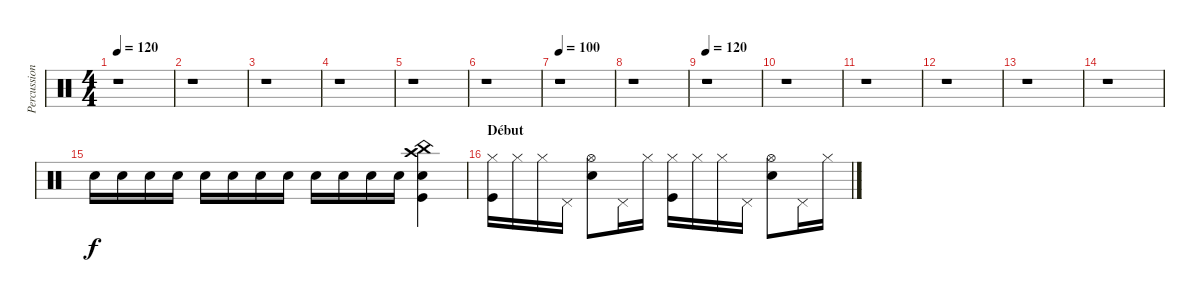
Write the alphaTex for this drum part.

\track ("Percussions" "Percussion") {instrument percussion}
\staff {score}
\articulation defaults
\ts (4 4)
\tempo 120
\tempo 80
\tempo 120
\clef neutral
\ks c
r.1{dy f} |
r.1 |
r.1 |
r.1 |
r.1 |
r.1 |
\tempo 100
r.1 |
r.1 |
\tempo 120
r.1 |
r.1 |
r.1 |
r.1 |
r.1 |
r.1 |
"Snare (hit) 2".16 "Snare (hit) 2".16 "Snare (hit) 2".16 "Snare (hit) 2".16 "Snare (hit) 2".16 "Snare (hit) 2".16 "Snare (hit) 2".16 "Snare (hit) 2".16 "Snare (hit) 2".16 "Snare (hit) 2".16 "Snare (hit) 2".16 "Snare (hit) 2".16 ("Crash high (hit)" "Snare (hit) 2" "Kick (hit)" "China (hit)").4 |
\section ("" "Début")
("Hi-Hat (closed)" "Kick (hit)").16 "Hi-Hat (closed)".16 "Hi-Hat (closed)".16 "Pedal Hi-Hat (hit)".16 ("Hi-Hat (open)" "Snare (hit) 2").8 "Pedal Hi-Hat (hit)".16 "Hi-Hat (closed)".16 ("Hi-Hat (closed)" "Kick (hit)").16 "Hi-Hat (closed)".16 "Hi-Hat (closed)".16 "Pedal Hi-Hat (hit)".16 ("Hi-Hat (open)" "Snare (hit) 2").8 "Pedal Hi-Hat (hit)".16 "Hi-Hat (closed)".16
